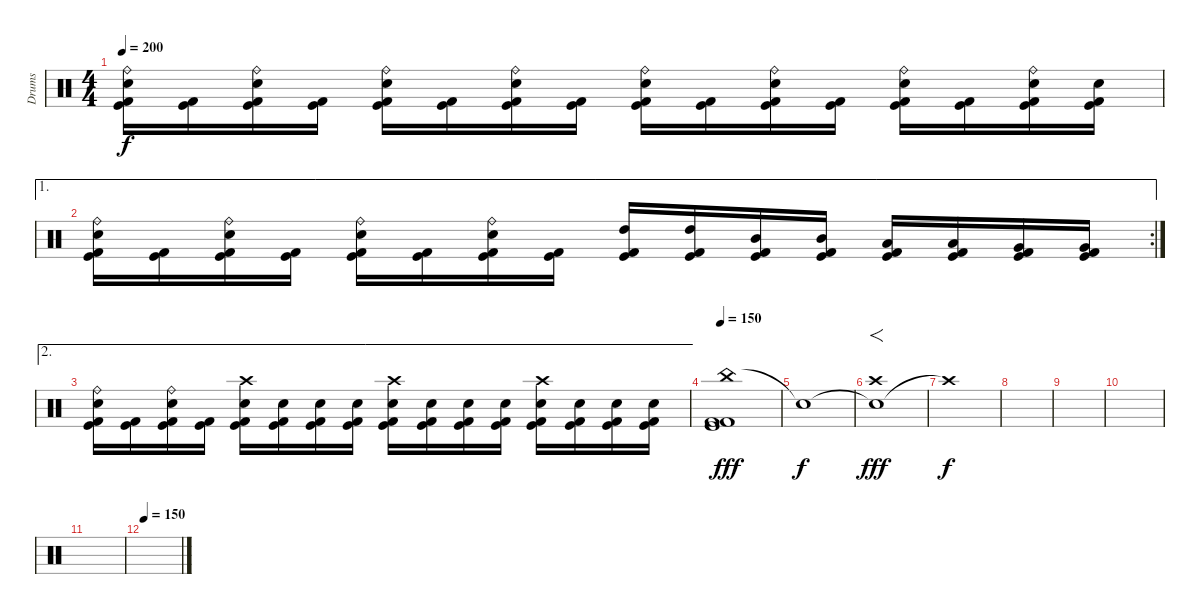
\track ("Drums" "Drums") {instrument percussion}
\staff {score}
\articulation defaults
\ts (4 4)
\tempo 200
\clef neutral
\ks c
("Ride (bell)" "Electric Snare (hit)" "Kick (hit)" "Kick (hit) 2").16{dy f} ("Kick (hit)" "Kick (hit) 2").16 ("Ride (bell)" "Electric Snare (hit)" "Kick (hit)" "Kick (hit) 2").16 ("Kick (hit)" "Kick (hit) 2").16 ("Ride (bell)" "Electric Snare (hit)" "Kick (hit)" "Kick (hit) 2").16 ("Kick (hit)" "Kick (hit) 2").16 ("Ride (bell)" "Electric Snare (hit)" "Kick (hit)" "Kick (hit) 2").16 ("Kick (hit)" "Kick (hit) 2").16 ("Ride (bell)" "Electric Snare (hit)" "Kick (hit)" "Kick (hit) 2").16 ("Kick (hit)" "Kick (hit) 2").16 ("Ride (bell)" "Electric Snare (hit)" "Kick (hit)" "Kick (hit) 2").16 ("Kick (hit)" "Kick (hit) 2").16 ("Ride (bell)" "Electric Snare (hit)" "Kick (hit)" "Kick (hit) 2").16 ("Kick (hit)" "Kick (hit) 2").16 ("Ride (bell)" "Electric Snare (hit)" "Kick (hit)" "Kick (hit) 2").16 ("Electric Snare (hit)" "Kick (hit)" "Kick (hit) 2").16 |
\ae 1
\rc 2
("Ride (bell)" "Electric Snare (hit)" "Kick (hit)" "Kick (hit) 2").16 ("Kick (hit)" "Kick (hit) 2").16 ("Ride (bell)" "Electric Snare (hit)" "Kick (hit)" "Kick (hit) 2").16 ("Kick (hit)" "Kick (hit) 2").16 ("Ride (bell)" "Electric Snare (hit)" "Kick (hit)" "Kick (hit) 2").16 ("Kick (hit)" "Kick (hit) 2").16 ("Ride (bell)" "Electric Snare (hit)" "Kick (hit)" "Kick (hit) 2").16 ("Kick (hit)" "Kick (hit) 2").16 ("High Tom (hit)" "Kick (hit)" "Kick (hit) 2").16 ("High Tom (hit)" "Kick (hit)" "Kick (hit) 2").16 ("Mid Tom (hit)" "Kick (hit)" "Kick (hit) 2").16 ("Mid Tom (hit)" "Kick (hit)" "Kick (hit) 2").16 ("Low Tom (hit)" "Kick (hit)" "Kick (hit) 2").16 ("Low Tom (hit)" "Kick (hit)" "Kick (hit) 2").16 ("Very Low Tom (hit)" "Kick (hit)" "Kick (hit) 2").16 ("Very Low Tom (hit)" "Kick (hit)" "Kick (hit) 2").16 |
\ae 2
("Ride (bell)" "Electric Snare (hit)" "Kick (hit)" "Kick (hit) 2").16 ("Kick (hit)" "Kick (hit) 2").16 ("Ride (bell)" "Electric Snare (hit)" "Kick (hit)" "Kick (hit) 2").16 ("Kick (hit)" "Kick (hit) 2").16 ("Crash high (hit)" "Electric Snare (hit)" "Kick (hit)" "Kick (hit) 2").16 ("Electric Snare (hit)" "Kick (hit)" "Kick (hit) 2").16 ("Electric Snare (hit)" "Kick (hit)" "Kick (hit) 2").16 ("Electric Snare (hit)" "Kick (hit)" "Kick (hit) 2").16 ("Crash high (hit)" "Electric Snare (hit)" "Kick (hit)" "Kick (hit) 2").16 ("Electric Snare (hit)" "Kick (hit)" "Kick (hit) 2").16 ("Electric Snare (hit)" "Kick (hit)" "Kick (hit) 2").16 ("Electric Snare (hit)" "Kick (hit)" "Kick (hit) 2").16 ("Crash high (hit)" "Electric Snare (hit)" "Kick (hit)" "Kick (hit) 2").16 ("Electric Snare (hit)" "Kick (hit)" "Kick (hit) 2").16 ("Electric Snare (hit)" "Kick (hit)" "Kick (hit) 2").16 ("Electric Snare (hit)" "Kick (hit)" "Kick (hit) 2").16 |
\tempo 150
("China (hit)" "Kick (hit) 2" "Kick (hit)" "Kick (hit) 2").1{dy fff} |
"Snare (hit)"{t}.1{dy f} |
("Snare (hit)"{t} "Crash high (hit)").1{f dy fff} |
"Crash high (hit)"{t}.1{dy f} |
|
|
|
|
\tempo 150
